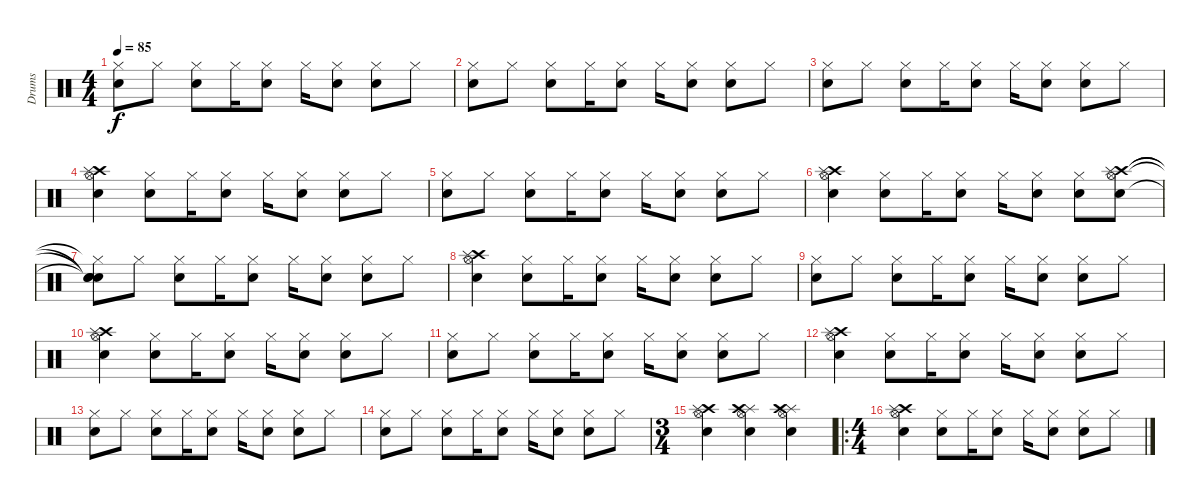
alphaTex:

\track ("Drums" "Drums") {instrument percussion}
\staff {score}
\articulation defaults
\ts (4 4)
\tempo 85
\clef neutral
\ks c
("Hi-Hat (closed)" "Snare (hit) 2").8{dy f} "Hi-Hat (closed)".8 ("Hi-Hat (closed)" "Snare (hit) 2").8 "Hi-Hat (closed)".16 ("Hi-Hat (closed)" "Snare (hit) 2").8 "Hi-Hat (closed)".16 ("Hi-Hat (closed)" "Snare (hit) 2").8 ("Hi-Hat (closed)" "Snare (hit) 2").8 "Hi-Hat (closed)".8 |
("Hi-Hat (closed)" "Snare (hit) 2").8 "Hi-Hat (closed)".8 ("Hi-Hat (closed)" "Snare (hit) 2").8 "Hi-Hat (closed)".16 ("Hi-Hat (closed)" "Snare (hit) 2").8 "Hi-Hat (closed)".16 ("Hi-Hat (closed)" "Snare (hit) 2").8 ("Hi-Hat (closed)" "Snare (hit) 2").8 "Hi-Hat (closed)".8 |
("Hi-Hat (closed)" "Snare (hit) 2").8 "Hi-Hat (closed)".8 ("Hi-Hat (closed)" "Snare (hit) 2").8 "Hi-Hat (closed)".16 ("Hi-Hat (closed)" "Snare (hit) 2").8 "Hi-Hat (closed)".16 ("Hi-Hat (closed)" "Snare (hit) 2").8 ("Hi-Hat (closed)" "Snare (hit) 2").8 "Hi-Hat (closed)".8 |
("Crash high (hit)" "Splash (hit)" "Snare (hit) 2" "Hi-Hat (open)").4 ("Hi-Hat (closed)" "Snare (hit) 2").8 "Hi-Hat (closed)".16 ("Hi-Hat (closed)" "Snare (hit) 2").8 "Hi-Hat (closed)".16 ("Hi-Hat (closed)" "Snare (hit) 2").8 ("Hi-Hat (closed)" "Snare (hit) 2").8 "Hi-Hat (closed)".8 |
("Hi-Hat (closed)" "Snare (hit) 2").8 "Hi-Hat (closed)".8 ("Hi-Hat (closed)" "Snare (hit) 2").8 "Hi-Hat (closed)".16 ("Hi-Hat (closed)" "Snare (hit) 2").8 "Hi-Hat (closed)".16 ("Hi-Hat (closed)" "Snare (hit) 2").8 ("Hi-Hat (closed)" "Snare (hit) 2").8 "Hi-Hat (closed)".8 |
("Crash high (hit)" "Splash (hit)" "Snare (hit) 2" "Hi-Hat (open)").4 ("Hi-Hat (closed)" "Snare (hit) 2").8 "Hi-Hat (closed)".16 ("Hi-Hat (closed)" "Snare (hit) 2").8 "Hi-Hat (closed)".16 ("Hi-Hat (closed)" "Snare (hit) 2").8 ("Hi-Hat (closed)" "Snare (hit) 2").8 ("Crash high (hit)" "Splash (hit)" "Snare (hit) 2" "Hi-Hat (open)").8 |
("Hi-Hat (closed)"{t} "Snare (hit) 2"{t} "Snare (hit) 2"{t} "Snare (hit)"{t}).8 "Hi-Hat (closed)".8 ("Hi-Hat (closed)" "Snare (hit) 2").8 "Hi-Hat (closed)".16 ("Hi-Hat (closed)" "Snare (hit) 2").8 "Hi-Hat (closed)".16 ("Hi-Hat (closed)" "Snare (hit) 2").8 ("Hi-Hat (closed)" "Snare (hit) 2").8 "Hi-Hat (closed)".8 |
("Crash high (hit)" "Splash (hit)" "Snare (hit) 2" "Hi-Hat (open)").4 ("Hi-Hat (closed)" "Snare (hit) 2").8 "Hi-Hat (closed)".16 ("Hi-Hat (closed)" "Snare (hit) 2").8 "Hi-Hat (closed)".16 ("Hi-Hat (closed)" "Snare (hit) 2").8 ("Hi-Hat (closed)" "Snare (hit) 2").8 "Hi-Hat (closed)".8 |
("Hi-Hat (closed)" "Snare (hit) 2").8 "Hi-Hat (closed)".8 ("Hi-Hat (closed)" "Snare (hit) 2").8 "Hi-Hat (closed)".16 ("Hi-Hat (closed)" "Snare (hit) 2").8 "Hi-Hat (closed)".16 ("Hi-Hat (closed)" "Snare (hit) 2").8 ("Hi-Hat (closed)" "Snare (hit) 2").8 "Hi-Hat (closed)".8 |
("Crash high (hit)" "Splash (hit)" "Snare (hit) 2" "Hi-Hat (open)").4 ("Hi-Hat (closed)" "Snare (hit) 2").8 "Hi-Hat (closed)".16 ("Hi-Hat (closed)" "Snare (hit) 2").8 "Hi-Hat (closed)".16 ("Hi-Hat (closed)" "Snare (hit) 2").8 ("Hi-Hat (closed)" "Snare (hit) 2").8 "Hi-Hat (closed)".8 |
("Hi-Hat (closed)" "Snare (hit) 2").8 "Hi-Hat (closed)".8 ("Hi-Hat (closed)" "Snare (hit) 2").8 "Hi-Hat (closed)".16 ("Hi-Hat (closed)" "Snare (hit) 2").8 "Hi-Hat (closed)".16 ("Hi-Hat (closed)" "Snare (hit) 2").8 ("Hi-Hat (closed)" "Snare (hit) 2").8 "Hi-Hat (closed)".8 |
("Crash high (hit)" "Splash (hit)" "Snare (hit) 2" "Hi-Hat (open)").4 ("Hi-Hat (closed)" "Snare (hit) 2").8 "Hi-Hat (closed)".16 ("Hi-Hat (closed)" "Snare (hit) 2").8 "Hi-Hat (closed)".16 ("Hi-Hat (closed)" "Snare (hit) 2").8 ("Hi-Hat (closed)" "Snare (hit) 2").8 "Hi-Hat (closed)".8 |
("Hi-Hat (closed)" "Snare (hit) 2").8 "Hi-Hat (closed)".8 ("Hi-Hat (closed)" "Snare (hit) 2").8 "Hi-Hat (closed)".16 ("Hi-Hat (closed)" "Snare (hit) 2").8 "Hi-Hat (closed)".16 ("Hi-Hat (closed)" "Snare (hit) 2").8 ("Hi-Hat (closed)" "Snare (hit) 2").8 "Hi-Hat (closed)".8 |
("Hi-Hat (closed)" "Snare (hit) 2").8 "Hi-Hat (closed)".8 ("Hi-Hat (closed)" "Snare (hit) 2").8 "Hi-Hat (closed)".16 ("Hi-Hat (closed)" "Snare (hit) 2").8 "Hi-Hat (closed)".16 ("Hi-Hat (closed)" "Snare (hit) 2").8 ("Hi-Hat (closed)" "Snare (hit) 2").8 "Hi-Hat (closed)".8 |
\ts (3 4)
("Crash high (hit)" "Splash (hit)" "Snare (hit) 2" "Hi-Hat (open)").4 ("Splash (hit)" "Hi-Hat (open)" "Crash high (hit)" "Snare (hit) 2").4 ("Hi-Hat (open)" "Snare (hit) 2" "Splash (hit)" "Crash high (hit)").4 |
\ro
\ts (4 4)
("Crash high (hit)" "Splash (hit)" "Snare (hit) 2" "Hi-Hat (open)").4 ("Hi-Hat (closed)" "Snare (hit) 2").8 "Hi-Hat (closed)".16 ("Hi-Hat (closed)" "Snare (hit) 2").8 "Hi-Hat (closed)".16 ("Hi-Hat (closed)" "Snare (hit) 2").8 ("Hi-Hat (closed)" "Snare (hit) 2").8 "Hi-Hat (closed)".8
